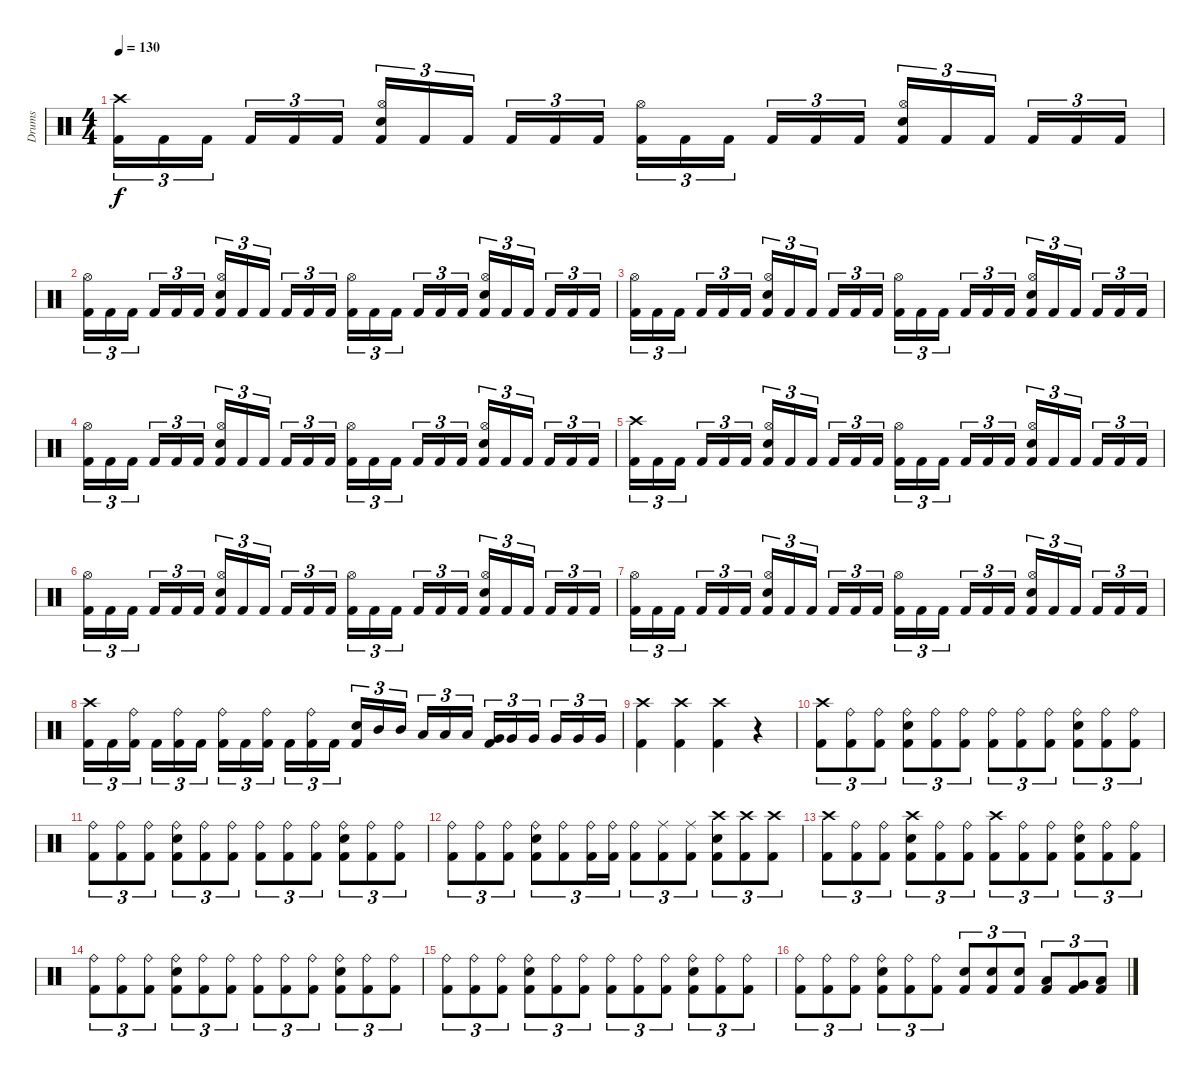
\track ("Drums" "Drums") {instrument percussion}
\staff {score}
\articulation defaults
\ts (4 4)
\tempo 130
\clef neutral
\ks c
("Crash high (hit)" "Kick (hit) 2").16{tu (3 2) dy f} "Kick (hit) 2".16{tu (3 2)} "Kick (hit) 2".16{tu (3 2) beam splitsecondary} "Kick (hit) 2".16{tu (3 2)} "Kick (hit) 2".16{tu (3 2)} "Kick (hit) 2".16{tu (3 2)} ("Hi-Hat (open)" "Electric Snare (hit)" "Kick (hit) 2").16{tu (3 2)} "Kick (hit) 2".16{tu (3 2)} "Kick (hit) 2".16{tu (3 2) beam splitsecondary} "Kick (hit) 2".16{tu (3 2)} "Kick (hit) 2".16{tu (3 2)} "Kick (hit) 2".16{tu (3 2)} ("Hi-Hat (open)" "Kick (hit) 2").16{tu (3 2)} "Kick (hit) 2".16{tu (3 2)} "Kick (hit) 2".16{tu (3 2) beam splitsecondary} "Kick (hit) 2".16{tu (3 2)} "Kick (hit) 2".16{tu (3 2)} "Kick (hit) 2".16{tu (3 2)} ("Hi-Hat (open)" "Electric Snare (hit)" "Kick (hit) 2").16{tu (3 2)} "Kick (hit) 2".16{tu (3 2)} "Kick (hit) 2".16{tu (3 2) beam splitsecondary} "Kick (hit) 2".16{tu (3 2)} "Kick (hit) 2".16{tu (3 2)} "Kick (hit) 2".16{tu (3 2)} |
("Hi-Hat (open)" "Kick (hit) 2").16{tu (3 2)} "Kick (hit) 2".16{tu (3 2)} "Kick (hit) 2".16{tu (3 2) beam splitsecondary} "Kick (hit) 2".16{tu (3 2)} "Kick (hit) 2".16{tu (3 2)} "Kick (hit) 2".16{tu (3 2)} ("Hi-Hat (open)" "Electric Snare (hit)" "Kick (hit) 2").16{tu (3 2)} "Kick (hit) 2".16{tu (3 2)} "Kick (hit) 2".16{tu (3 2) beam splitsecondary} "Kick (hit) 2".16{tu (3 2)} "Kick (hit) 2".16{tu (3 2)} "Kick (hit) 2".16{tu (3 2)} ("Hi-Hat (open)" "Kick (hit) 2").16{tu (3 2)} "Kick (hit) 2".16{tu (3 2)} "Kick (hit) 2".16{tu (3 2) beam splitsecondary} "Kick (hit) 2".16{tu (3 2)} "Kick (hit) 2".16{tu (3 2)} "Kick (hit) 2".16{tu (3 2)} ("Hi-Hat (open)" "Electric Snare (hit)" "Kick (hit) 2").16{tu (3 2)} "Kick (hit) 2".16{tu (3 2)} "Kick (hit) 2".16{tu (3 2) beam splitsecondary} "Kick (hit) 2".16{tu (3 2)} "Kick (hit) 2".16{tu (3 2)} "Kick (hit) 2".16{tu (3 2)} |
("Hi-Hat (open)" "Kick (hit) 2").16{tu (3 2)} "Kick (hit) 2".16{tu (3 2)} "Kick (hit) 2".16{tu (3 2) beam splitsecondary} "Kick (hit) 2".16{tu (3 2)} "Kick (hit) 2".16{tu (3 2)} "Kick (hit) 2".16{tu (3 2)} ("Hi-Hat (open)" "Electric Snare (hit)" "Kick (hit) 2").16{tu (3 2)} "Kick (hit) 2".16{tu (3 2)} "Kick (hit) 2".16{tu (3 2) beam splitsecondary} "Kick (hit) 2".16{tu (3 2)} "Kick (hit) 2".16{tu (3 2)} "Kick (hit) 2".16{tu (3 2)} ("Hi-Hat (open)" "Kick (hit) 2").16{tu (3 2)} "Kick (hit) 2".16{tu (3 2)} "Kick (hit) 2".16{tu (3 2) beam splitsecondary} "Kick (hit) 2".16{tu (3 2)} "Kick (hit) 2".16{tu (3 2)} "Kick (hit) 2".16{tu (3 2)} ("Hi-Hat (open)" "Electric Snare (hit)" "Kick (hit) 2").16{tu (3 2)} "Kick (hit) 2".16{tu (3 2)} "Kick (hit) 2".16{tu (3 2) beam splitsecondary} "Kick (hit) 2".16{tu (3 2)} "Kick (hit) 2".16{tu (3 2)} "Kick (hit) 2".16{tu (3 2)} |
("Hi-Hat (open)" "Kick (hit) 2").16{tu (3 2)} "Kick (hit) 2".16{tu (3 2)} "Kick (hit) 2".16{tu (3 2) beam splitsecondary} "Kick (hit) 2".16{tu (3 2)} "Kick (hit) 2".16{tu (3 2)} "Kick (hit) 2".16{tu (3 2)} ("Hi-Hat (open)" "Electric Snare (hit)" "Kick (hit) 2").16{tu (3 2)} "Kick (hit) 2".16{tu (3 2)} "Kick (hit) 2".16{tu (3 2) beam splitsecondary} "Kick (hit) 2".16{tu (3 2)} "Kick (hit) 2".16{tu (3 2)} "Kick (hit) 2".16{tu (3 2)} ("Hi-Hat (open)" "Kick (hit) 2").16{tu (3 2)} "Kick (hit) 2".16{tu (3 2)} "Kick (hit) 2".16{tu (3 2) beam splitsecondary} "Kick (hit) 2".16{tu (3 2)} "Kick (hit) 2".16{tu (3 2)} "Kick (hit) 2".16{tu (3 2)} ("Hi-Hat (open)" "Electric Snare (hit)" "Kick (hit) 2").16{tu (3 2)} "Kick (hit) 2".16{tu (3 2)} "Kick (hit) 2".16{tu (3 2) beam splitsecondary} "Kick (hit) 2".16{tu (3 2)} "Kick (hit) 2".16{tu (3 2)} "Kick (hit) 2".16{tu (3 2)} |
("Crash high (hit)" "Kick (hit) 2").16{tu (3 2)} "Kick (hit) 2".16{tu (3 2)} "Kick (hit) 2".16{tu (3 2) beam splitsecondary} "Kick (hit) 2".16{tu (3 2)} "Kick (hit) 2".16{tu (3 2)} "Kick (hit) 2".16{tu (3 2)} ("Hi-Hat (open)" "Electric Snare (hit)" "Kick (hit) 2").16{tu (3 2)} "Kick (hit) 2".16{tu (3 2)} "Kick (hit) 2".16{tu (3 2) beam splitsecondary} "Kick (hit) 2".16{tu (3 2)} "Kick (hit) 2".16{tu (3 2)} "Kick (hit) 2".16{tu (3 2)} ("Hi-Hat (open)" "Kick (hit) 2").16{tu (3 2)} "Kick (hit) 2".16{tu (3 2)} "Kick (hit) 2".16{tu (3 2) beam splitsecondary} "Kick (hit) 2".16{tu (3 2)} "Kick (hit) 2".16{tu (3 2)} "Kick (hit) 2".16{tu (3 2)} ("Hi-Hat (open)" "Electric Snare (hit)" "Kick (hit) 2").16{tu (3 2)} "Kick (hit) 2".16{tu (3 2)} "Kick (hit) 2".16{tu (3 2) beam splitsecondary} "Kick (hit) 2".16{tu (3 2)} "Kick (hit) 2".16{tu (3 2)} "Kick (hit) 2".16{tu (3 2)} |
("Hi-Hat (open)" "Kick (hit) 2").16{tu (3 2)} "Kick (hit) 2".16{tu (3 2)} "Kick (hit) 2".16{tu (3 2) beam splitsecondary} "Kick (hit) 2".16{tu (3 2)} "Kick (hit) 2".16{tu (3 2)} "Kick (hit) 2".16{tu (3 2)} ("Hi-Hat (open)" "Electric Snare (hit)" "Kick (hit) 2").16{tu (3 2)} "Kick (hit) 2".16{tu (3 2)} "Kick (hit) 2".16{tu (3 2) beam splitsecondary} "Kick (hit) 2".16{tu (3 2)} "Kick (hit) 2".16{tu (3 2)} "Kick (hit) 2".16{tu (3 2)} ("Hi-Hat (open)" "Kick (hit) 2").16{tu (3 2)} "Kick (hit) 2".16{tu (3 2)} "Kick (hit) 2".16{tu (3 2) beam splitsecondary} "Kick (hit) 2".16{tu (3 2)} "Kick (hit) 2".16{tu (3 2)} "Kick (hit) 2".16{tu (3 2)} ("Hi-Hat (open)" "Electric Snare (hit)" "Kick (hit) 2").16{tu (3 2)} "Kick (hit) 2".16{tu (3 2)} "Kick (hit) 2".16{tu (3 2) beam splitsecondary} "Kick (hit) 2".16{tu (3 2)} "Kick (hit) 2".16{tu (3 2)} "Kick (hit) 2".16{tu (3 2)} |
("Hi-Hat (open)" "Kick (hit) 2").16{tu (3 2)} "Kick (hit) 2".16{tu (3 2)} "Kick (hit) 2".16{tu (3 2) beam splitsecondary} "Kick (hit) 2".16{tu (3 2)} "Kick (hit) 2".16{tu (3 2)} "Kick (hit) 2".16{tu (3 2)} ("Hi-Hat (open)" "Electric Snare (hit)" "Kick (hit) 2").16{tu (3 2)} "Kick (hit) 2".16{tu (3 2)} "Kick (hit) 2".16{tu (3 2) beam splitsecondary} "Kick (hit) 2".16{tu (3 2)} "Kick (hit) 2".16{tu (3 2)} "Kick (hit) 2".16{tu (3 2)} ("Hi-Hat (open)" "Kick (hit) 2").16{tu (3 2)} "Kick (hit) 2".16{tu (3 2)} "Kick (hit) 2".16{tu (3 2) beam splitsecondary} "Kick (hit) 2".16{tu (3 2)} "Kick (hit) 2".16{tu (3 2)} "Kick (hit) 2".16{tu (3 2)} ("Hi-Hat (open)" "Electric Snare (hit)" "Kick (hit) 2").16{tu (3 2)} "Kick (hit) 2".16{tu (3 2)} "Kick (hit) 2".16{tu (3 2) beam splitsecondary} "Kick (hit) 2".16{tu (3 2)} "Kick (hit) 2".16{tu (3 2)} "Kick (hit) 2".16{tu (3 2)} |
("Crash high (hit)" "Kick (hit) 2").16{tu (3 2)} "Kick (hit) 2".16{tu (3 2)} ("Ride (bell)" "Kick (hit) 2").16{tu (3 2) beam splitsecondary} "Kick (hit) 2".16{tu (3 2)} ("Ride (bell)" "Kick (hit) 2").16{tu (3 2)} "Kick (hit) 2".16{tu (3 2)} ("Ride (bell)" "Kick (hit) 2").16{tu (3 2)} "Kick (hit) 2".16{tu (3 2)} ("Ride (bell)" "Kick (hit) 2").16{tu (3 2) beam splitsecondary} "Kick (hit) 2".16{tu (3 2)} ("Ride (bell)" "Kick (hit) 2").16{tu (3 2)} "Kick (hit) 2".16{tu (3 2)} ("Electric Snare (hit)" "Kick (hit) 2").16{tu (3 2)} "Mid Tom (hit)".16{tu (3 2)} "Mid Tom (hit)".16{tu (3 2) beam splitsecondary} "Low Tom (hit)".16{tu (3 2)} "Low Tom (hit)".16{tu (3 2)} "Low Tom (hit)".16{tu (3 2)} ("Very Low Tom (hit)" "Kick (hit) 2").16{tu (3 2)} "Very Low Tom (hit)".16{tu (3 2)} "Very Low Tom (hit)".16{tu (3 2) beam splitsecondary} "Very Low Tom (hit)".16{tu (3 2)} "Very Low Tom (hit)".16{tu (3 2)} "Very Low Tom (hit)".16{tu (3 2)} |
("Crash high (hit)" "Kick (hit) 2").4 ("Crash high (hit)" "Kick (hit) 2").4 ("Crash high (hit)" "Kick (hit) 2").4 r.4 |
("Crash high (hit)" "Kick (hit) 2").8{tu (3 2)} ("Ride (bell)" "Kick (hit) 2").8{tu (3 2)} ("Ride (bell)" "Kick (hit) 2").8{tu (3 2)} ("Ride (bell)" "Electric Snare (hit)" "Kick (hit) 2").8{tu (3 2)} ("Ride (bell)" "Kick (hit) 2").8{tu (3 2)} ("Ride (bell)" "Kick (hit) 2").8{tu (3 2)} ("Ride (bell)" "Kick (hit) 2").8{tu (3 2)} ("Ride (bell)" "Kick (hit) 2").8{tu (3 2)} ("Ride (bell)" "Kick (hit) 2").8{tu (3 2)} ("Ride (bell)" "Electric Snare (hit)" "Kick (hit) 2").8{tu (3 2)} ("Ride (bell)" "Kick (hit) 2").8{tu (3 2)} ("Ride (bell)" "Kick (hit) 2").8{tu (3 2)} |
("Ride (bell)" "Kick (hit) 2").8{tu (3 2)} ("Ride (bell)" "Kick (hit) 2").8{tu (3 2)} ("Ride (bell)" "Kick (hit) 2").8{tu (3 2)} ("Ride (bell)" "Electric Snare (hit)" "Kick (hit) 2").8{tu (3 2)} ("Ride (bell)" "Kick (hit) 2").8{tu (3 2)} ("Ride (bell)" "Kick (hit) 2").8{tu (3 2)} ("Ride (bell)" "Kick (hit) 2").8{tu (3 2)} ("Ride (bell)" "Kick (hit) 2").8{tu (3 2)} ("Ride (bell)" "Kick (hit) 2").8{tu (3 2)} ("Ride (bell)" "Electric Snare (hit)" "Kick (hit) 2").8{tu (3 2)} ("Ride (bell)" "Kick (hit) 2").8{tu (3 2)} ("Ride (bell)" "Kick (hit) 2").8{tu (3 2)} |
("Ride (bell)" "Kick (hit) 2").8{tu (3 2)} ("Ride (bell)" "Kick (hit) 2").8{tu (3 2)} ("Ride (bell)" "Kick (hit) 2").8{tu (3 2)} ("Ride (bell)" "Electric Snare (hit)" "Kick (hit) 2").8{tu (3 2)} ("Ride (bell)" "Kick (hit) 2").8{tu (3 2)} ("Ride (bell)" "Kick (hit) 2").16{tu (3 2)} ("Ride (bell)" "Kick (hit) 2").16{tu (3 2)} ("Ride (bell)" "Kick (hit) 2").8{tu (3 2)} ("Ride (middle)" "Kick (hit) 2").8{tu (3 2)} ("Ride (middle)" "Kick (hit) 2").8{tu (3 2)} ("Crash high (hit)" "Electric Snare (hit)" "Kick (hit) 2").8{tu (3 2)} ("Crash high (hit)" "Kick (hit) 2").8{tu (3 2)} ("Crash high (hit)" "Kick (hit) 2").8{tu (3 2)} |
("Crash high (hit)" "Kick (hit) 2").8{tu (3 2)} ("Ride (bell)" "Kick (hit) 2").8{tu (3 2)} ("Ride (bell)" "Kick (hit) 2").8{tu (3 2)} ("Crash high (hit)" "Electric Snare (hit)" "Kick (hit) 2").8{tu (3 2)} ("Ride (bell)" "Kick (hit) 2").8{tu (3 2)} ("Ride (bell)" "Kick (hit) 2").8{tu (3 2)} ("Crash high (hit)" "Kick (hit) 2").8{tu (3 2)} ("Ride (bell)" "Kick (hit) 2").8{tu (3 2)} ("Ride (bell)" "Kick (hit) 2").8{tu (3 2)} ("Ride (bell)" "Electric Snare (hit)" "Kick (hit) 2").8{tu (3 2)} ("Ride (bell)" "Kick (hit) 2").8{tu (3 2)} ("Ride (bell)" "Kick (hit) 2").8{tu (3 2)} |
("Ride (bell)" "Kick (hit) 2").8{tu (3 2)} ("Ride (bell)" "Kick (hit) 2").8{tu (3 2)} ("Ride (bell)" "Kick (hit) 2").8{tu (3 2)} ("Ride (bell)" "Electric Snare (hit)" "Kick (hit) 2").8{tu (3 2)} ("Ride (bell)" "Kick (hit) 2").8{tu (3 2)} ("Ride (bell)" "Kick (hit) 2").8{tu (3 2)} ("Ride (bell)" "Kick (hit) 2").8{tu (3 2)} ("Ride (bell)" "Kick (hit) 2").8{tu (3 2)} ("Ride (bell)" "Kick (hit) 2").8{tu (3 2)} ("Ride (bell)" "Electric Snare (hit)" "Kick (hit) 2").8{tu (3 2)} ("Ride (bell)" "Kick (hit) 2").8{tu (3 2)} ("Ride (bell)" "Kick (hit) 2").8{tu (3 2)} |
("Ride (bell)" "Kick (hit) 2").8{tu (3 2)} ("Ride (bell)" "Kick (hit) 2").8{tu (3 2)} ("Ride (bell)" "Kick (hit) 2").8{tu (3 2)} ("Ride (bell)" "Electric Snare (hit)" "Kick (hit) 2").8{tu (3 2)} ("Ride (bell)" "Kick (hit) 2").8{tu (3 2)} ("Ride (bell)" "Kick (hit) 2").8{tu (3 2)} ("Ride (bell)" "Kick (hit) 2").8{tu (3 2)} ("Ride (bell)" "Kick (hit) 2").8{tu (3 2)} ("Ride (bell)" "Kick (hit) 2").8{tu (3 2)} ("Ride (bell)" "Electric Snare (hit)" "Kick (hit) 2").8{tu (3 2)} ("Ride (bell)" "Kick (hit) 2").8{tu (3 2)} ("Ride (bell)" "Kick (hit) 2").8{tu (3 2)} |
("Ride (bell)" "Kick (hit) 2").8{tu (3 2)} ("Ride (bell)" "Kick (hit) 2").8{tu (3 2)} ("Ride (bell)" "Kick (hit) 2").8{tu (3 2)} ("Ride (bell)" "Electric Snare (hit)" "Kick (hit) 2").8{tu (3 2)} ("Ride (bell)" "Kick (hit) 2").8{tu (3 2)} ("Ride (bell)" "Kick (hit) 2").8{tu (3 2)} ("Electric Snare (hit)" "Kick (hit) 2").8{tu (3 2)} ("Electric Snare (hit)" "Kick (hit) 2").8{tu (3 2)} ("Electric Snare (hit)" "Kick (hit) 2").8{tu (3 2)} ("Low Tom (hit)" "Kick (hit) 2").8{tu (3 2)} ("Very Low Tom (hit)" "Kick (hit) 2").8{tu (3 2)} ("Low Floor Tom (hit)" "Kick (hit) 2").8{tu (3 2)}
